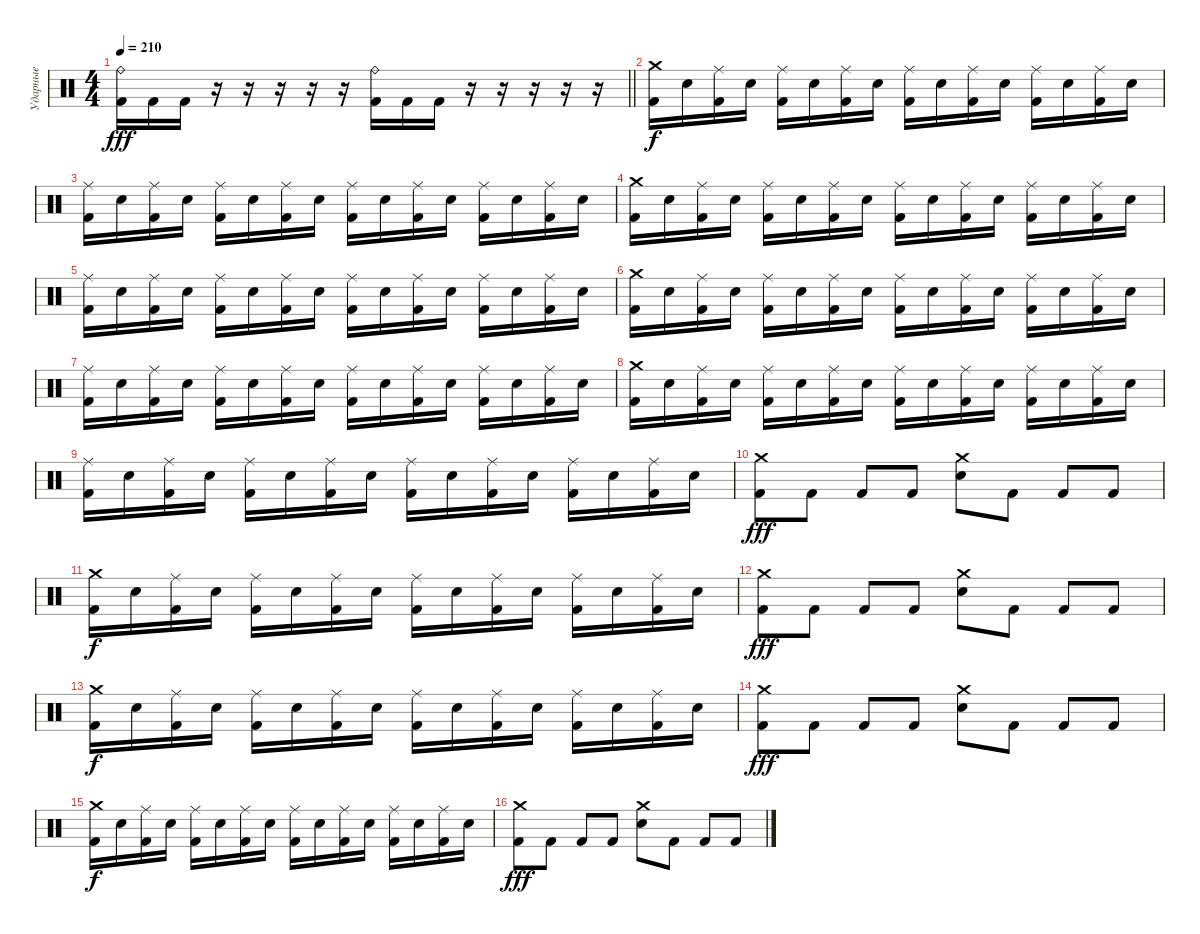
\track ("Ударные" "Ударные") {instrument percussion}
\staff {score}
\articulation defaults
\ts (4 4)
\tempo 210
\clef neutral
\barLineRight lightlight
\ks c
("Ride (bell)" "Kick (hit) 2").16{dy fff} "Kick (hit) 2".16 "Kick (hit) 2".16 r.16 r.16 r.16 r.16 r.16 ("Ride (bell)" "Kick (hit) 2").16 "Kick (hit) 2".16 "Kick (hit) 2".16 r.16 r.16 r.16 r.16 r.16 |
("Crash medium (hit)" "Kick (hit) 2").16{dy f} "Electric Snare (hit)".16 ("Ride (middle)" "Kick (hit) 2").16 "Electric Snare (hit)".16 ("Ride (middle)" "Kick (hit) 2").16 "Electric Snare (hit)".16 ("Ride (middle)" "Kick (hit) 2").16 "Electric Snare (hit)".16 ("Ride (middle)" "Kick (hit) 2").16 "Electric Snare (hit)".16 ("Ride (middle)" "Kick (hit) 2").16 "Electric Snare (hit)".16 ("Ride (middle)" "Kick (hit) 2").16 "Electric Snare (hit)".16 ("Ride (middle)" "Kick (hit) 2").16 "Electric Snare (hit)".16 |
("Ride (middle)" "Kick (hit) 2").16 "Electric Snare (hit)".16 ("Ride (middle)" "Kick (hit) 2").16 "Electric Snare (hit)".16 ("Ride (middle)" "Kick (hit) 2").16 "Electric Snare (hit)".16 ("Ride (middle)" "Kick (hit) 2").16 "Electric Snare (hit)".16 ("Ride (middle)" "Kick (hit) 2").16 "Electric Snare (hit)".16 ("Ride (middle)" "Kick (hit) 2").16 "Electric Snare (hit)".16 ("Ride (middle)" "Kick (hit) 2").16 "Electric Snare (hit)".16 ("Ride (middle)" "Kick (hit) 2").16 "Electric Snare (hit)".16 |
("Crash medium (hit)" "Kick (hit) 2").16 "Electric Snare (hit)".16 ("Ride (middle)" "Kick (hit) 2").16 "Electric Snare (hit)".16 ("Ride (middle)" "Kick (hit) 2").16 "Electric Snare (hit)".16 ("Ride (middle)" "Kick (hit) 2").16 "Electric Snare (hit)".16 ("Ride (middle)" "Kick (hit) 2").16 "Electric Snare (hit)".16 ("Ride (middle)" "Kick (hit) 2").16 "Electric Snare (hit)".16 ("Ride (middle)" "Kick (hit) 2").16 "Electric Snare (hit)".16 ("Ride (middle)" "Kick (hit) 2").16 "Electric Snare (hit)".16 |
("Ride (middle)" "Kick (hit) 2").16 "Electric Snare (hit)".16 ("Ride (middle)" "Kick (hit) 2").16 "Electric Snare (hit)".16 ("Ride (middle)" "Kick (hit) 2").16 "Electric Snare (hit)".16 ("Ride (middle)" "Kick (hit) 2").16 "Electric Snare (hit)".16 ("Ride (middle)" "Kick (hit) 2").16 "Electric Snare (hit)".16 ("Ride (middle)" "Kick (hit) 2").16 "Electric Snare (hit)".16 ("Ride (middle)" "Kick (hit) 2").16 "Electric Snare (hit)".16 ("Ride (middle)" "Kick (hit) 2").16 "Electric Snare (hit)".16 |
("Crash medium (hit)" "Kick (hit) 2").16 "Electric Snare (hit)".16 ("Ride (middle)" "Kick (hit) 2").16 "Electric Snare (hit)".16 ("Ride (middle)" "Kick (hit) 2").16 "Electric Snare (hit)".16 ("Ride (middle)" "Kick (hit) 2").16 "Electric Snare (hit)".16 ("Ride (middle)" "Kick (hit) 2").16 "Electric Snare (hit)".16 ("Ride (middle)" "Kick (hit) 2").16 "Electric Snare (hit)".16 ("Ride (middle)" "Kick (hit) 2").16 "Electric Snare (hit)".16 ("Ride (middle)" "Kick (hit) 2").16 "Electric Snare (hit)".16 |
("Ride (middle)" "Kick (hit) 2").16 "Electric Snare (hit)".16 ("Ride (middle)" "Kick (hit) 2").16 "Electric Snare (hit)".16 ("Ride (middle)" "Kick (hit) 2").16 "Electric Snare (hit)".16 ("Ride (middle)" "Kick (hit) 2").16 "Electric Snare (hit)".16 ("Ride (middle)" "Kick (hit) 2").16 "Electric Snare (hit)".16 ("Ride (middle)" "Kick (hit) 2").16 "Electric Snare (hit)".16 ("Ride (middle)" "Kick (hit) 2").16 "Electric Snare (hit)".16 ("Ride (middle)" "Kick (hit) 2").16 "Electric Snare (hit)".16 |
("Crash medium (hit)" "Kick (hit) 2").16 "Electric Snare (hit)".16 ("Ride (middle)" "Kick (hit) 2").16 "Electric Snare (hit)".16 ("Ride (middle)" "Kick (hit) 2").16 "Electric Snare (hit)".16 ("Ride (middle)" "Kick (hit) 2").16 "Electric Snare (hit)".16 ("Ride (middle)" "Kick (hit) 2").16 "Electric Snare (hit)".16 ("Ride (middle)" "Kick (hit) 2").16 "Electric Snare (hit)".16 ("Ride (middle)" "Kick (hit) 2").16 "Electric Snare (hit)".16 ("Ride (middle)" "Kick (hit) 2").16 "Electric Snare (hit)".16 |
("Ride (middle)" "Kick (hit) 2").16 "Electric Snare (hit)".16 ("Ride (middle)" "Kick (hit) 2").16 "Electric Snare (hit)".16 ("Ride (middle)" "Kick (hit) 2").16 "Electric Snare (hit)".16 ("Ride (middle)" "Kick (hit) 2").16 "Electric Snare (hit)".16 ("Ride (middle)" "Kick (hit) 2").16 "Electric Snare (hit)".16 ("Ride (middle)" "Kick (hit) 2").16 "Electric Snare (hit)".16 ("Ride (middle)" "Kick (hit) 2").16 "Electric Snare (hit)".16 ("Ride (middle)" "Kick (hit) 2").16 "Electric Snare (hit)".16 |
("Crash medium (hit)" "Kick (hit) 2").8{dy fff} "Kick (hit) 2".8 "Kick (hit) 2".8 "Kick (hit) 2".8 ("Crash medium (hit)" "Electric Snare (hit)").8 "Kick (hit) 2".8 "Kick (hit) 2".8 "Kick (hit) 2".8 |
("Crash medium (hit)" "Kick (hit) 2").16{dy f} "Electric Snare (hit)".16 ("Ride (middle)" "Kick (hit) 2").16 "Electric Snare (hit)".16 ("Ride (middle)" "Kick (hit) 2").16 "Electric Snare (hit)".16 ("Ride (middle)" "Kick (hit) 2").16 "Electric Snare (hit)".16 ("Ride (middle)" "Kick (hit) 2").16 "Electric Snare (hit)".16 ("Ride (middle)" "Kick (hit) 2").16 "Electric Snare (hit)".16 ("Ride (middle)" "Kick (hit) 2").16 "Electric Snare (hit)".16 ("Ride (middle)" "Kick (hit) 2").16 "Electric Snare (hit)".16 |
("Crash medium (hit)" "Kick (hit) 2").8{dy fff} "Kick (hit) 2".8 "Kick (hit) 2".8 "Kick (hit) 2".8 ("Crash medium (hit)" "Electric Snare (hit)").8 "Kick (hit) 2".8 "Kick (hit) 2".8 "Kick (hit) 2".8 |
("Crash medium (hit)" "Kick (hit) 2").16{dy f} "Electric Snare (hit)".16 ("Ride (middle)" "Kick (hit) 2").16 "Electric Snare (hit)".16 ("Ride (middle)" "Kick (hit) 2").16 "Electric Snare (hit)".16 ("Ride (middle)" "Kick (hit) 2").16 "Electric Snare (hit)".16 ("Ride (middle)" "Kick (hit) 2").16 "Electric Snare (hit)".16 ("Ride (middle)" "Kick (hit) 2").16 "Electric Snare (hit)".16 ("Ride (middle)" "Kick (hit) 2").16 "Electric Snare (hit)".16 ("Ride (middle)" "Kick (hit) 2").16 "Electric Snare (hit)".16 |
("Crash medium (hit)" "Kick (hit) 2").8{dy fff} "Kick (hit) 2".8 "Kick (hit) 2".8 "Kick (hit) 2".8 ("Crash medium (hit)" "Electric Snare (hit)").8 "Kick (hit) 2".8 "Kick (hit) 2".8 "Kick (hit) 2".8 |
("Crash medium (hit)" "Kick (hit) 2").16{dy f} "Electric Snare (hit)".16 ("Ride (middle)" "Kick (hit) 2").16 "Electric Snare (hit)".16 ("Ride (middle)" "Kick (hit) 2").16 "Electric Snare (hit)".16 ("Ride (middle)" "Kick (hit) 2").16 "Electric Snare (hit)".16 ("Ride (middle)" "Kick (hit) 2").16 "Electric Snare (hit)".16 ("Ride (middle)" "Kick (hit) 2").16 "Electric Snare (hit)".16 ("Ride (middle)" "Kick (hit) 2").16 "Electric Snare (hit)".16 ("Ride (middle)" "Kick (hit) 2").16 "Electric Snare (hit)".16 |
("Crash medium (hit)" "Kick (hit) 2").8{dy fff} "Kick (hit) 2".8 "Kick (hit) 2".8 "Kick (hit) 2".8 ("Crash medium (hit)" "Electric Snare (hit)").8 "Kick (hit) 2".8 "Kick (hit) 2".8 "Kick (hit) 2".8
